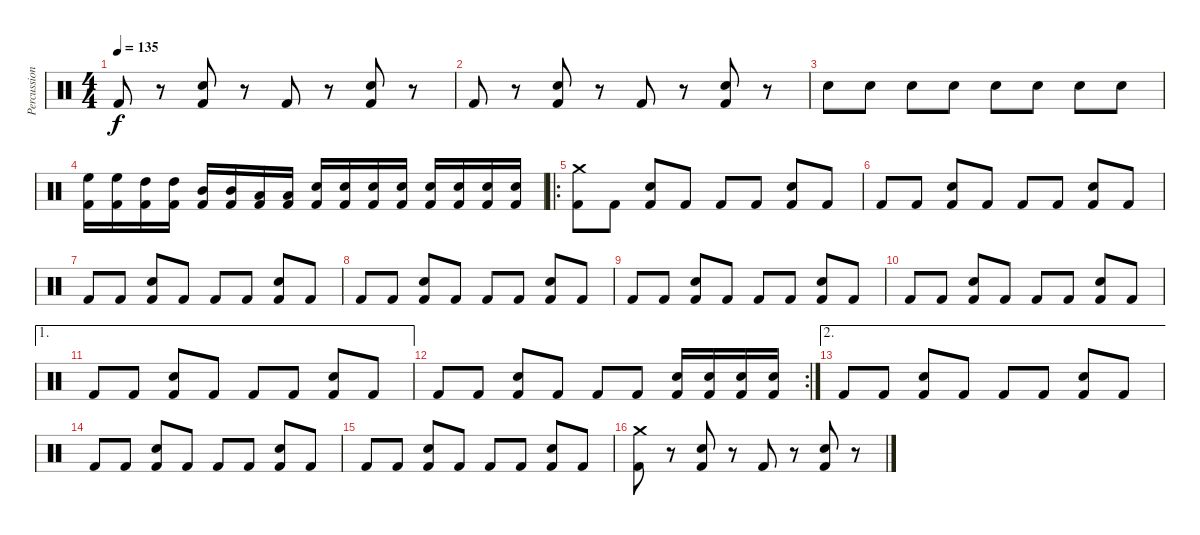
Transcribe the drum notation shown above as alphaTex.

\track ("Percussions" "Percussion") {instrument percussion}
\staff {score}
\articulation defaults
\ts (4 4)
\tempo 135
\clef neutral
\ks c "Kick (hit) 2".8{dy f}
r.8 ("Snare (hit) 2" "Kick (hit) 2").8 r.8 "Kick (hit) 2".8 r.8 ("Snare (hit) 2" "Kick (hit) 2").8 r.8 |
"Kick (hit) 2".8 r.8 ("Snare (hit) 2" "Kick (hit) 2").8 r.8 "Kick (hit) 2".8 r.8 ("Snare (hit) 2" "Kick (hit) 2").8 r.8 |
"Snare (hit) 2".8 "Snare (hit) 2".8 "Snare (hit) 2".8 "Snare (hit) 2".8 "Snare (hit) 2".8 "Snare (hit) 2".8 "Snare (hit) 2".8 "Snare (hit) 2".8 |
("High Floor Tom (hit)" "Kick (hit) 2").16 ("High Floor Tom (hit)" "Kick (hit) 2").16 ("High Tom (hit)" "Kick (hit) 2").16 ("High Tom (hit)" "Kick (hit) 2").16 ("Mid Tom (hit)" "Kick (hit) 2").16 ("Mid Tom (hit)" "Kick (hit) 2").16 ("Low Tom (hit)" "Kick (hit) 2").16 ("Low Tom (hit)" "Kick (hit) 2").16 ("Snare (hit) 2" "Kick (hit) 2").16 ("Snare (hit) 2" "Kick (hit) 2").16 ("Snare (hit) 2" "Kick (hit) 2").16 ("Snare (hit) 2" "Kick (hit) 2").16 ("Snare (hit) 2" "Kick (hit) 2").16 ("Snare (hit) 2" "Kick (hit) 2").16 ("Snare (hit) 2" "Kick (hit) 2").16 ("Snare (hit) 2" "Kick (hit) 2").16 |
\ro
("Crash medium (hit)" "Kick (hit) 2").8 "Kick (hit) 2".8 ("Snare (hit) 2" "Kick (hit) 2").8 "Kick (hit) 2".8 "Kick (hit) 2".8 "Kick (hit) 2".8 ("Snare (hit) 2" "Kick (hit) 2").8 "Kick (hit) 2".8 |
"Kick (hit) 2".8 "Kick (hit) 2".8 ("Snare (hit) 2" "Kick (hit) 2").8 "Kick (hit) 2".8 "Kick (hit) 2".8 "Kick (hit) 2".8 ("Snare (hit) 2" "Kick (hit) 2").8 "Kick (hit) 2".8 |
"Kick (hit) 2".8 "Kick (hit) 2".8 ("Snare (hit) 2" "Kick (hit) 2").8 "Kick (hit) 2".8 "Kick (hit) 2".8 "Kick (hit) 2".8 ("Snare (hit) 2" "Kick (hit) 2").8 "Kick (hit) 2".8 |
"Kick (hit) 2".8 "Kick (hit) 2".8 ("Snare (hit) 2" "Kick (hit) 2").8 "Kick (hit) 2".8 "Kick (hit) 2".8 "Kick (hit) 2".8 ("Snare (hit) 2" "Kick (hit) 2").8 "Kick (hit) 2".8 |
"Kick (hit) 2".8 "Kick (hit) 2".8 ("Snare (hit) 2" "Kick (hit) 2").8 "Kick (hit) 2".8 "Kick (hit) 2".8 "Kick (hit) 2".8 ("Snare (hit) 2" "Kick (hit) 2").8 "Kick (hit) 2".8 |
"Kick (hit) 2".8 "Kick (hit) 2".8 ("Snare (hit) 2" "Kick (hit) 2").8 "Kick (hit) 2".8 "Kick (hit) 2".8 "Kick (hit) 2".8 ("Snare (hit) 2" "Kick (hit) 2").8 "Kick (hit) 2".8 |
\ae 1 "Kick (hit) 2".8 "Kick (hit) 2".8
("Snare (hit) 2" "Kick (hit) 2").8 "Kick (hit) 2".8 "Kick (hit) 2".8 "Kick (hit) 2".8 ("Snare (hit) 2" "Kick (hit) 2").8 "Kick (hit) 2".8 |
\rc 2 "Kick (hit) 2".8 "Kick (hit) 2".8
("Snare (hit) 2" "Kick (hit) 2").8 "Kick (hit) 2".8 "Kick (hit) 2".8 "Kick (hit) 2".8 ("Snare (hit) 2" "Kick (hit) 2").16 ("Snare (hit) 2" "Kick (hit) 2").16 ("Snare (hit) 2" "Kick (hit) 2").16 ("Snare (hit) 2" "Kick (hit) 2").16 |
\ae 2 "Kick (hit) 2".8 "Kick (hit) 2".8
("Snare (hit) 2" "Kick (hit) 2").8 "Kick (hit) 2".8 "Kick (hit) 2".8 "Kick (hit) 2".8 ("Snare (hit) 2" "Kick (hit) 2").8 "Kick (hit) 2".8 |
"Kick (hit) 2".8 "Kick (hit) 2".8 ("Snare (hit) 2" "Kick (hit) 2").8 "Kick (hit) 2".8 "Kick (hit) 2".8 "Kick (hit) 2".8 ("Snare (hit) 2" "Kick (hit) 2").8 "Kick (hit) 2".8 |
"Kick (hit) 2".8 "Kick (hit) 2".8 ("Snare (hit) 2" "Kick (hit) 2").8 "Kick (hit) 2".8 "Kick (hit) 2".8 "Kick (hit) 2".8 ("Snare (hit) 2" "Kick (hit) 2").8 "Kick (hit) 2".8 |
("Crash medium (hit)" "Kick (hit) 2").8 r.8 ("Snare (hit) 2" "Kick (hit) 2").8 r.8 "Kick (hit) 2".8 r.8 ("Snare (hit) 2" "Kick (hit) 2").8 r.8
